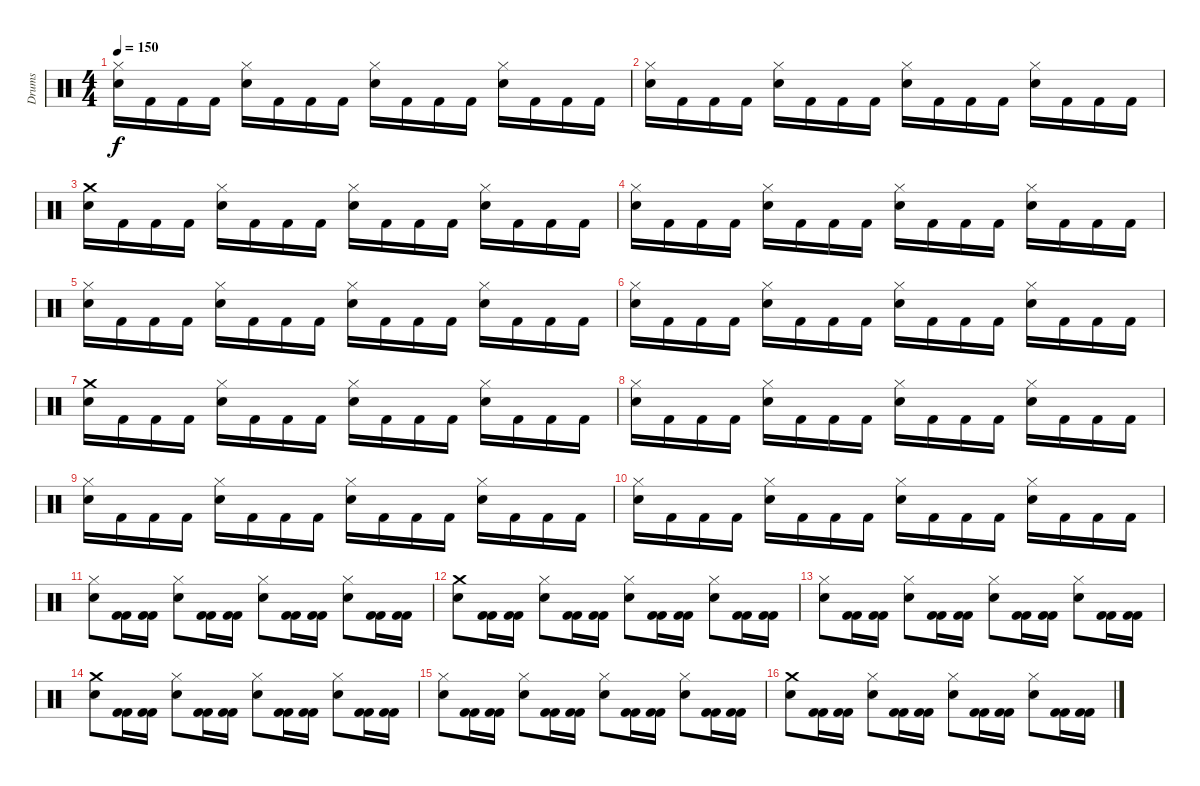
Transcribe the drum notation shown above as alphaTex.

\track ("Drums" "Drums") {instrument percussion}
\staff {score}
\articulation defaults
\ts (4 4)
\tempo 150
\clef neutral
\ks c
("Hi-Hat (closed)" "Electric Snare (hit)").16{dy f} "Kick (hit) 2".16 "Kick (hit) 2".16 "Kick (hit) 2".16 ("Electric Snare (hit)" "Hi-Hat (closed)").16 "Kick (hit) 2".16 "Kick (hit) 2".16 "Kick (hit) 2".16 ("Electric Snare (hit)" "Hi-Hat (closed)").16 "Kick (hit) 2".16 "Kick (hit) 2".16 "Kick (hit) 2".16 ("Hi-Hat (closed)" "Electric Snare (hit)").16 "Kick (hit) 2".16 "Kick (hit) 2".16 "Kick (hit) 2".16 |
("Hi-Hat (closed)" "Electric Snare (hit)").16 "Kick (hit) 2".16 "Kick (hit) 2".16 "Kick (hit) 2".16 ("Electric Snare (hit)" "Hi-Hat (closed)").16 "Kick (hit) 2".16 "Kick (hit) 2".16 "Kick (hit) 2".16 ("Electric Snare (hit)" "Hi-Hat (closed)").16 "Kick (hit) 2".16 "Kick (hit) 2".16 "Kick (hit) 2".16 ("Hi-Hat (closed)" "Electric Snare (hit)").16 "Kick (hit) 2".16 "Kick (hit) 2".16 "Kick (hit) 2".16 |
("Crash medium (hit)" "Electric Snare (hit)").16 "Kick (hit) 2".16 "Kick (hit) 2".16 "Kick (hit) 2".16 ("Electric Snare (hit)" "Hi-Hat (closed)").16 "Kick (hit) 2".16 "Kick (hit) 2".16 "Kick (hit) 2".16 ("Electric Snare (hit)" "Hi-Hat (closed)").16 "Kick (hit) 2".16 "Kick (hit) 2".16 "Kick (hit) 2".16 ("Hi-Hat (closed)" "Electric Snare (hit)").16 "Kick (hit) 2".16 "Kick (hit) 2".16 "Kick (hit) 2".16 |
("Hi-Hat (closed)" "Electric Snare (hit)").16 "Kick (hit) 2".16 "Kick (hit) 2".16 "Kick (hit) 2".16 ("Electric Snare (hit)" "Hi-Hat (closed)").16 "Kick (hit) 2".16 "Kick (hit) 2".16 "Kick (hit) 2".16 ("Electric Snare (hit)" "Hi-Hat (closed)").16 "Kick (hit) 2".16 "Kick (hit) 2".16 "Kick (hit) 2".16 ("Hi-Hat (closed)" "Electric Snare (hit)").16 "Kick (hit) 2".16 "Kick (hit) 2".16 "Kick (hit) 2".16 |
("Hi-Hat (closed)" "Electric Snare (hit)").16 "Kick (hit) 2".16 "Kick (hit) 2".16 "Kick (hit) 2".16 ("Electric Snare (hit)" "Hi-Hat (closed)").16 "Kick (hit) 2".16 "Kick (hit) 2".16 "Kick (hit) 2".16 ("Electric Snare (hit)" "Hi-Hat (closed)").16 "Kick (hit) 2".16 "Kick (hit) 2".16 "Kick (hit) 2".16 ("Hi-Hat (closed)" "Electric Snare (hit)").16 "Kick (hit) 2".16 "Kick (hit) 2".16 "Kick (hit) 2".16 |
("Hi-Hat (closed)" "Electric Snare (hit)").16 "Kick (hit) 2".16 "Kick (hit) 2".16 "Kick (hit) 2".16 ("Electric Snare (hit)" "Hi-Hat (closed)").16 "Kick (hit) 2".16 "Kick (hit) 2".16 "Kick (hit) 2".16 ("Electric Snare (hit)" "Hi-Hat (closed)").16 "Kick (hit) 2".16 "Kick (hit) 2".16 "Kick (hit) 2".16 ("Hi-Hat (closed)" "Electric Snare (hit)").16 "Kick (hit) 2".16 "Kick (hit) 2".16 "Kick (hit) 2".16 |
("Crash medium (hit)" "Electric Snare (hit)").16 "Kick (hit) 2".16 "Kick (hit) 2".16 "Kick (hit) 2".16 ("Electric Snare (hit)" "Hi-Hat (closed)").16 "Kick (hit) 2".16 "Kick (hit) 2".16 "Kick (hit) 2".16 ("Electric Snare (hit)" "Hi-Hat (closed)").16 "Kick (hit) 2".16 "Kick (hit) 2".16 "Kick (hit) 2".16 ("Hi-Hat (closed)" "Electric Snare (hit)").16 "Kick (hit) 2".16 "Kick (hit) 2".16 "Kick (hit) 2".16 |
("Hi-Hat (closed)" "Electric Snare (hit)").16 "Kick (hit) 2".16 "Kick (hit) 2".16 "Kick (hit) 2".16 ("Electric Snare (hit)" "Hi-Hat (closed)").16 "Kick (hit) 2".16 "Kick (hit) 2".16 "Kick (hit) 2".16 ("Electric Snare (hit)" "Hi-Hat (closed)").16 "Kick (hit) 2".16 "Kick (hit) 2".16 "Kick (hit) 2".16 ("Hi-Hat (closed)" "Electric Snare (hit)").16 "Kick (hit) 2".16 "Kick (hit) 2".16 "Kick (hit) 2".16 |
("Hi-Hat (closed)" "Electric Snare (hit)").16 "Kick (hit) 2".16 "Kick (hit) 2".16 "Kick (hit) 2".16 ("Electric Snare (hit)" "Hi-Hat (closed)").16 "Kick (hit) 2".16 "Kick (hit) 2".16 "Kick (hit) 2".16 ("Electric Snare (hit)" "Hi-Hat (closed)").16 "Kick (hit) 2".16 "Kick (hit) 2".16 "Kick (hit) 2".16 ("Hi-Hat (closed)" "Electric Snare (hit)").16 "Kick (hit) 2".16 "Kick (hit) 2".16 "Kick (hit) 2".16 |
("Hi-Hat (closed)" "Electric Snare (hit)").16 "Kick (hit) 2".16 "Kick (hit) 2".16 "Kick (hit) 2".16 ("Electric Snare (hit)" "Hi-Hat (closed)").16 "Kick (hit) 2".16 "Kick (hit) 2".16 "Kick (hit) 2".16 ("Electric Snare (hit)" "Hi-Hat (closed)").16 "Kick (hit) 2".16 "Kick (hit) 2".16 "Kick (hit) 2".16 ("Hi-Hat (closed)" "Electric Snare (hit)").16 "Kick (hit) 2".16 "Kick (hit) 2".16 "Kick (hit) 2".16 |
("Hi-Hat (closed)" "Electric Snare (hit)").8 ("Kick (hit) 2" "Kick (hit) 2").16 ("Kick (hit) 2" "Kick (hit) 2").16 ("Electric Snare (hit)" "Hi-Hat (closed)").8 ("Kick (hit) 2" "Kick (hit) 2").16 ("Kick (hit) 2" "Kick (hit) 2").16 ("Electric Snare (hit)" "Hi-Hat (closed)").8 ("Kick (hit) 2" "Kick (hit) 2").16 ("Kick (hit) 2" "Kick (hit) 2").16 ("Hi-Hat (closed)" "Electric Snare (hit)").8 ("Kick (hit) 2" "Kick (hit) 2").16 ("Kick (hit) 2" "Kick (hit) 2").16 |
("Crash medium (hit)" "Electric Snare (hit)").8 ("Kick (hit) 2" "Kick (hit) 2").16 ("Kick (hit) 2" "Kick (hit) 2").16 ("Electric Snare (hit)" "Hi-Hat (closed)").8 ("Kick (hit) 2" "Kick (hit) 2").16 ("Kick (hit) 2" "Kick (hit) 2").16 ("Electric Snare (hit)" "Hi-Hat (closed)").8 ("Kick (hit) 2" "Kick (hit) 2").16 ("Kick (hit) 2" "Kick (hit) 2").16 ("Hi-Hat (closed)" "Electric Snare (hit)").8 ("Kick (hit) 2" "Kick (hit) 2").16 ("Kick (hit) 2" "Kick (hit) 2").16 |
("Hi-Hat (closed)" "Electric Snare (hit)").8 ("Kick (hit) 2" "Kick (hit) 2").16 ("Kick (hit) 2" "Kick (hit) 2").16 ("Electric Snare (hit)" "Hi-Hat (closed)").8 ("Kick (hit) 2" "Kick (hit) 2").16 ("Kick (hit) 2" "Kick (hit) 2").16 ("Electric Snare (hit)" "Hi-Hat (closed)").8 ("Kick (hit) 2" "Kick (hit) 2").16 ("Kick (hit) 2" "Kick (hit) 2").16 ("Hi-Hat (closed)" "Electric Snare (hit)").8 ("Kick (hit) 2" "Kick (hit) 2").16 ("Kick (hit) 2" "Kick (hit) 2").16 |
("Crash medium (hit)" "Electric Snare (hit)").8 ("Kick (hit) 2" "Kick (hit) 2").16 ("Kick (hit) 2" "Kick (hit) 2").16 ("Electric Snare (hit)" "Hi-Hat (closed)").8 ("Kick (hit) 2" "Kick (hit) 2").16 ("Kick (hit) 2" "Kick (hit) 2").16 ("Electric Snare (hit)" "Hi-Hat (closed)").8 ("Kick (hit) 2" "Kick (hit) 2").16 ("Kick (hit) 2" "Kick (hit) 2").16 ("Hi-Hat (closed)" "Electric Snare (hit)").8 ("Kick (hit) 2" "Kick (hit) 2").16 ("Kick (hit) 2" "Kick (hit) 2").16 |
("Hi-Hat (closed)" "Electric Snare (hit)").8 ("Kick (hit) 2" "Kick (hit) 2").16 ("Kick (hit) 2" "Kick (hit) 2").16 ("Electric Snare (hit)" "Hi-Hat (closed)").8 ("Kick (hit) 2" "Kick (hit) 2").16 ("Kick (hit) 2" "Kick (hit) 2").16 ("Electric Snare (hit)" "Hi-Hat (closed)").8 ("Kick (hit) 2" "Kick (hit) 2").16 ("Kick (hit) 2" "Kick (hit) 2").16 ("Hi-Hat (closed)" "Electric Snare (hit)").8 ("Kick (hit) 2" "Kick (hit) 2").16 ("Kick (hit) 2" "Kick (hit) 2").16 |
("Crash medium (hit)" "Electric Snare (hit)").8 ("Kick (hit) 2" "Kick (hit) 2").16 ("Kick (hit) 2" "Kick (hit) 2").16 ("Electric Snare (hit)" "Hi-Hat (closed)").8 ("Kick (hit) 2" "Kick (hit) 2").16 ("Kick (hit) 2" "Kick (hit) 2").16 ("Electric Snare (hit)" "Hi-Hat (closed)").8 ("Kick (hit) 2" "Kick (hit) 2").16 ("Kick (hit) 2" "Kick (hit) 2").16 ("Hi-Hat (closed)" "Electric Snare (hit)").8 ("Kick (hit) 2" "Kick (hit) 2").16 ("Kick (hit) 2" "Kick (hit) 2").16
